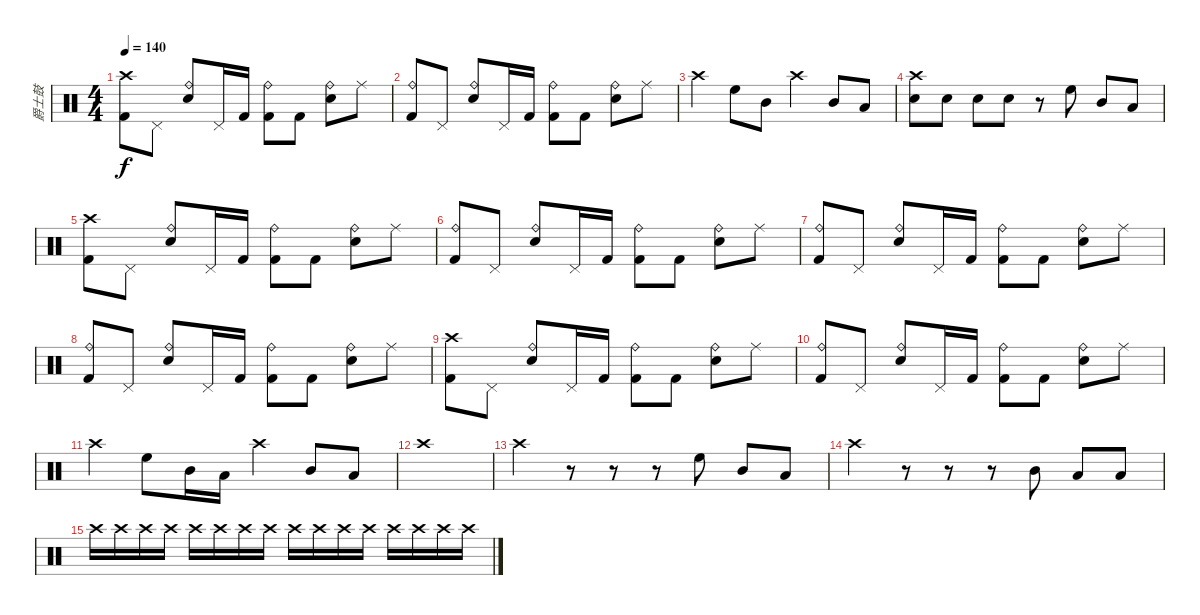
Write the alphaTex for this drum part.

\track ("爵士鼓" "爵士鼓") {instrument percussion}
\staff {score}
\articulation defaults
\ts (4 4)
\tempo 140
\clef neutral
\ks c
("Crash high (hit)" "Kick (hit) 2").8{dy f} "Pedal Hi-Hat (hit)".8 ("Ride (bell)" "Snare (hit) 2").8 "Pedal Hi-Hat (hit)".16 "Kick (hit) 2".16 ("Ride (bell)" "Kick (hit) 2").8 "Kick (hit) 2".8 ("Ride (bell)" "Snare (hit) 2").8 "Ride (middle)".8 |
("Ride (bell)" "Kick (hit) 2").8 "Pedal Hi-Hat (hit)".8 ("Ride (bell)" "Snare (hit) 2").8 "Pedal Hi-Hat (hit)".16 "Kick (hit) 2".16 ("Ride (bell)" "Kick (hit) 2").8 "Kick (hit) 2".8 ("Ride (bell)" "Snare (hit) 2").8 "Ride (middle)".8 |
"Crash high (hit)".4 "High Floor Tom (hit)".8 "Mid Tom (hit)".8 "Crash high (hit)".4 "Mid Tom (hit)".8 "Low Tom (hit)".8 |
("Crash high (hit)" "Snare (hit) 2").8 "Snare (hit) 2".8 "Snare (hit) 2".8 "Snare (hit) 2".8 r.8 "High Floor Tom (hit)".8 "Mid Tom (hit)".8 "Low Tom (hit)".8 |
("Crash high (hit)" "Kick (hit) 2").8 "Pedal Hi-Hat (hit)".8 ("Ride (bell)" "Snare (hit) 2").8 "Pedal Hi-Hat (hit)".16 "Kick (hit) 2".16 ("Ride (bell)" "Kick (hit) 2").8 "Kick (hit) 2".8 ("Ride (bell)" "Snare (hit) 2").8 "Ride (middle)".8 |
("Ride (bell)" "Kick (hit) 2").8 "Pedal Hi-Hat (hit)".8 ("Ride (bell)" "Snare (hit) 2").8 "Pedal Hi-Hat (hit)".16 "Kick (hit) 2".16 ("Ride (bell)" "Kick (hit) 2").8 "Kick (hit) 2".8 ("Ride (bell)" "Snare (hit) 2").8 "Ride (middle)".8 |
("Ride (bell)" "Kick (hit) 2").8 "Pedal Hi-Hat (hit)".8 ("Ride (bell)" "Snare (hit) 2").8 "Pedal Hi-Hat (hit)".16 "Kick (hit) 2".16 ("Ride (bell)" "Kick (hit) 2").8 "Kick (hit) 2".8 ("Ride (bell)" "Snare (hit) 2").8 "Ride (middle)".8 |
("Ride (bell)" "Kick (hit) 2").8 "Pedal Hi-Hat (hit)".8 ("Ride (bell)" "Snare (hit) 2").8 "Pedal Hi-Hat (hit)".16 "Kick (hit) 2".16 ("Ride (bell)" "Kick (hit) 2").8 "Kick (hit) 2".8 ("Ride (bell)" "Snare (hit) 2").8 "Ride (middle)".8 |
("Crash high (hit)" "Kick (hit) 2").8 "Pedal Hi-Hat (hit)".8 ("Ride (bell)" "Snare (hit) 2").8 "Pedal Hi-Hat (hit)".16 "Kick (hit) 2".16 ("Ride (bell)" "Kick (hit) 2").8 "Kick (hit) 2".8 ("Ride (bell)" "Snare (hit) 2").8 "Ride (middle)".8 |
("Ride (bell)" "Kick (hit) 2").8 "Pedal Hi-Hat (hit)".8 ("Ride (bell)" "Snare (hit) 2").8 "Pedal Hi-Hat (hit)".16 "Kick (hit) 2".16 ("Ride (bell)" "Kick (hit) 2").8 "Kick (hit) 2".8 ("Ride (bell)" "Snare (hit) 2").8 "Ride (middle)".8 |
"Crash high (hit)".4 "High Floor Tom (hit)".8 "Mid Tom (hit)".16 "Low Tom (hit)".16 "Crash high (hit)".4 "Mid Tom (hit)".8 "Low Tom (hit)".8 |
"Crash high (hit)".1 |
"Crash high (hit)".4 r.8 r.8 r.8 "High Floor Tom (hit)".8 "Mid Tom (hit)".8 "Low Tom (hit)".8 |
"Crash high (hit)".4 r.8 r.8 r.8 "Mid Tom (hit)".8 "Low Tom (hit)".8 "Low Floor Tom (hit)".8 |
"Crash high (hit)".16 "Crash high (hit)".16 "Crash high (hit)".16 "Crash high (hit)".16 "Crash high (hit)".16 "Crash high (hit)".16 "Crash high (hit)".16 "Crash high (hit)".16 "Crash high (hit)".16 "Crash high (hit)".16 "Crash high (hit)".16 "Crash high (hit)".16 "Crash high (hit)".16 "Crash high (hit)".16 "Crash high (hit)".16 "Crash high (hit)".16
